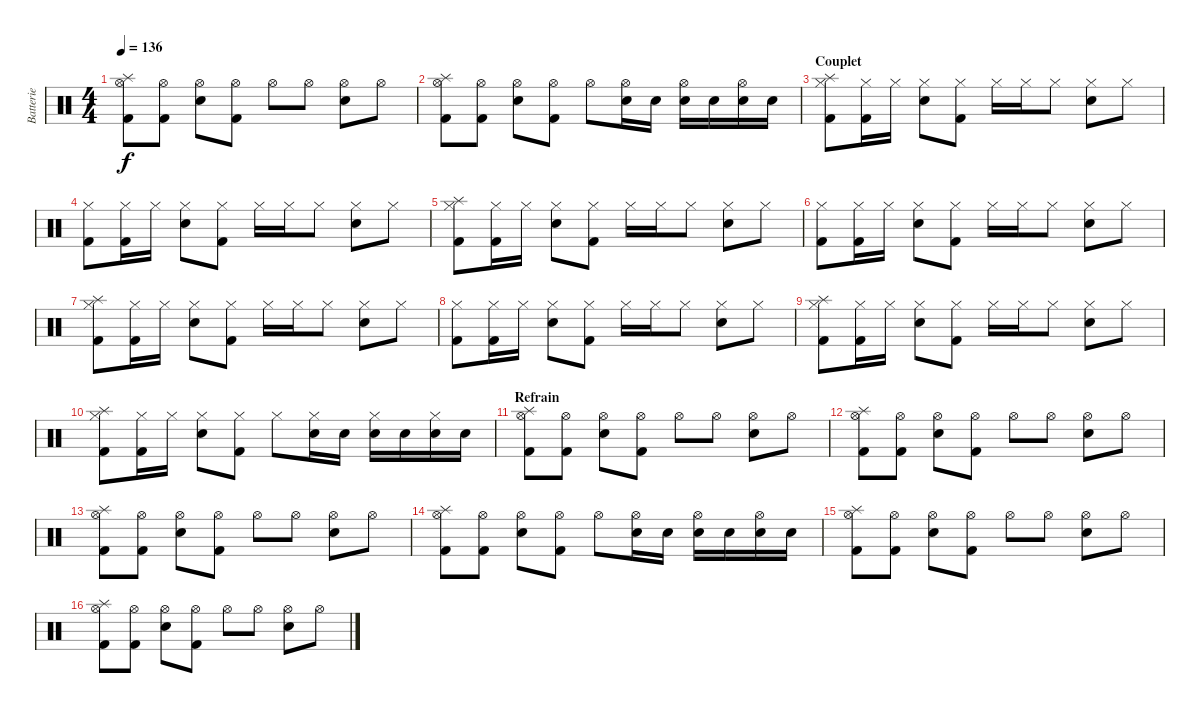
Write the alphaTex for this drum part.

\track ("Batterie" "Batterie") {instrument percussion}
\staff {score}
\articulation defaults
\ts (4 4)
\tempo 136
\clef neutral
\ks c
("Splash (hit)" "Hi-Hat (open)" "Kick (hit) 2").8{dy f} ("Hi-Hat (open)" "Kick (hit) 2").8 ("Hi-Hat (open)" "Snare (hit) 2").8 ("Hi-Hat (open)" "Kick (hit) 2").8 "Hi-Hat (open)".8 "Hi-Hat (open)".8 ("Hi-Hat (open)" "Snare (hit) 2").8 "Hi-Hat (open)".8 |
("Splash (hit)" "Hi-Hat (open)" "Kick (hit) 2").8 ("Hi-Hat (open)" "Kick (hit) 2").8 ("Hi-Hat (open)" "Snare (hit) 2").8 ("Hi-Hat (open)" "Kick (hit) 2").8 "Hi-Hat (open)".8 ("Hi-Hat (open)" "Snare (hit) 2").16 "Snare (hit) 2".16 ("Hi-Hat (open)" "Snare (hit) 2").16 "Snare (hit) 2".16 ("Hi-Hat (open)" "Snare (hit) 2").16 "Snare (hit) 2".16 |
\section ("" "Couplet")
("Splash (hit)" "Hi-Hat (closed)" "Kick (hit) 2").8 ("Hi-Hat (closed)" "Kick (hit) 2").16 "Hi-Hat (closed)".16 ("Hi-Hat (closed)" "Snare (hit) 2").8 ("Hi-Hat (closed)" "Kick (hit) 2").8 "Hi-Hat (closed)".16 "Hi-Hat (closed)".16 "Hi-Hat (closed)".8 ("Hi-Hat (closed)" "Snare (hit) 2").8 "Hi-Hat (closed)".8 |
("Hi-Hat (closed)" "Kick (hit) 2").8 ("Hi-Hat (closed)" "Kick (hit) 2").16 "Hi-Hat (closed)".16 ("Hi-Hat (closed)" "Snare (hit) 2").8 ("Hi-Hat (closed)" "Kick (hit) 2").8 "Hi-Hat (closed)".16 "Hi-Hat (closed)".16 "Hi-Hat (closed)".8 ("Hi-Hat (closed)" "Snare (hit) 2").8 "Hi-Hat (closed)".8 |
("Splash (hit)" "Hi-Hat (closed)" "Kick (hit) 2").8 ("Hi-Hat (closed)" "Kick (hit) 2").16 "Hi-Hat (closed)".16 ("Hi-Hat (closed)" "Snare (hit) 2").8 ("Hi-Hat (closed)" "Kick (hit) 2").8 "Hi-Hat (closed)".16 "Hi-Hat (closed)".16 "Hi-Hat (closed)".8 ("Hi-Hat (closed)" "Snare (hit) 2").8 "Hi-Hat (closed)".8 |
("Hi-Hat (closed)" "Kick (hit) 2").8 ("Hi-Hat (closed)" "Kick (hit) 2").16 "Hi-Hat (closed)".16 ("Hi-Hat (closed)" "Snare (hit) 2").8 ("Hi-Hat (closed)" "Kick (hit) 2").8 "Hi-Hat (closed)".16 "Hi-Hat (closed)".16 "Hi-Hat (closed)".8 ("Hi-Hat (closed)" "Snare (hit) 2").8 "Hi-Hat (closed)".8 |
("Splash (hit)" "Hi-Hat (closed)" "Kick (hit) 2").8 ("Hi-Hat (closed)" "Kick (hit) 2").16 "Hi-Hat (closed)".16 ("Hi-Hat (closed)" "Snare (hit) 2").8 ("Hi-Hat (closed)" "Kick (hit) 2").8 "Hi-Hat (closed)".16 "Hi-Hat (closed)".16 "Hi-Hat (closed)".8 ("Hi-Hat (closed)" "Snare (hit) 2").8 "Hi-Hat (closed)".8 |
("Hi-Hat (closed)" "Kick (hit) 2").8 ("Hi-Hat (closed)" "Kick (hit) 2").16 "Hi-Hat (closed)".16 ("Hi-Hat (closed)" "Snare (hit) 2").8 ("Hi-Hat (closed)" "Kick (hit) 2").8 "Hi-Hat (closed)".16 "Hi-Hat (closed)".16 "Hi-Hat (closed)".8 ("Hi-Hat (closed)" "Snare (hit) 2").8 "Hi-Hat (closed)".8 |
("Splash (hit)" "Hi-Hat (closed)" "Kick (hit) 2").8 ("Hi-Hat (closed)" "Kick (hit) 2").16 "Hi-Hat (closed)".16 ("Hi-Hat (closed)" "Snare (hit) 2").8 ("Hi-Hat (closed)" "Kick (hit) 2").8 "Hi-Hat (closed)".16 "Hi-Hat (closed)".16 "Hi-Hat (closed)".8 ("Hi-Hat (closed)" "Snare (hit) 2").8 "Hi-Hat (closed)".8 |
("Splash (hit)" "Hi-Hat (closed)" "Kick (hit) 2").8 ("Hi-Hat (closed)" "Kick (hit) 2").16 "Hi-Hat (closed)".16 ("Hi-Hat (closed)" "Snare (hit) 2").8 ("Hi-Hat (closed)" "Kick (hit) 2").8 "Hi-Hat (closed)".8 ("Hi-Hat (closed)" "Snare (hit) 2").16 "Snare (hit) 2".16 ("Hi-Hat (closed)" "Snare (hit) 2").16 "Snare (hit) 2".16 ("Hi-Hat (closed)" "Snare (hit) 2").16 "Snare (hit) 2".16 |
\section ("" "Refrain")
("Splash (hit)" "Hi-Hat (open)" "Kick (hit) 2").8 ("Hi-Hat (open)" "Kick (hit) 2").8 ("Hi-Hat (open)" "Snare (hit) 2").8 ("Hi-Hat (open)" "Kick (hit) 2").8 "Hi-Hat (open)".8 "Hi-Hat (open)".8 ("Hi-Hat (open)" "Snare (hit) 2").8 "Hi-Hat (open)".8 |
("Splash (hit)" "Hi-Hat (open)" "Kick (hit) 2").8 ("Hi-Hat (open)" "Kick (hit) 2").8 ("Hi-Hat (open)" "Snare (hit) 2").8 ("Hi-Hat (open)" "Kick (hit) 2").8 "Hi-Hat (open)".8 "Hi-Hat (open)".8 ("Hi-Hat (open)" "Snare (hit) 2").8 "Hi-Hat (open)".8 |
("Splash (hit)" "Hi-Hat (open)" "Kick (hit) 2").8 ("Hi-Hat (open)" "Kick (hit) 2").8 ("Hi-Hat (open)" "Snare (hit) 2").8 ("Hi-Hat (open)" "Kick (hit) 2").8 "Hi-Hat (open)".8 "Hi-Hat (open)".8 ("Hi-Hat (open)" "Snare (hit) 2").8 "Hi-Hat (open)".8 |
("Splash (hit)" "Hi-Hat (open)" "Kick (hit) 2").8 ("Hi-Hat (open)" "Kick (hit) 2").8 ("Hi-Hat (open)" "Snare (hit) 2").8 ("Hi-Hat (open)" "Kick (hit) 2").8 "Hi-Hat (open)".8 ("Hi-Hat (open)" "Snare (hit) 2").16 "Snare (hit) 2".16 ("Hi-Hat (open)" "Snare (hit) 2").16 "Snare (hit) 2".16 ("Hi-Hat (open)" "Snare (hit) 2").16 "Snare (hit) 2".16 |
("Splash (hit)" "Hi-Hat (open)" "Kick (hit) 2").8 ("Hi-Hat (open)" "Kick (hit) 2").8 ("Hi-Hat (open)" "Snare (hit) 2").8 ("Hi-Hat (open)" "Kick (hit) 2").8 "Hi-Hat (open)".8 "Hi-Hat (open)".8 ("Hi-Hat (open)" "Snare (hit) 2").8 "Hi-Hat (open)".8 |
("Splash (hit)" "Hi-Hat (open)" "Kick (hit) 2").8 ("Hi-Hat (open)" "Kick (hit) 2").8 ("Hi-Hat (open)" "Snare (hit) 2").8 ("Hi-Hat (open)" "Kick (hit) 2").8 "Hi-Hat (open)".8 "Hi-Hat (open)".8 ("Hi-Hat (open)" "Snare (hit) 2").8 "Hi-Hat (open)".8
